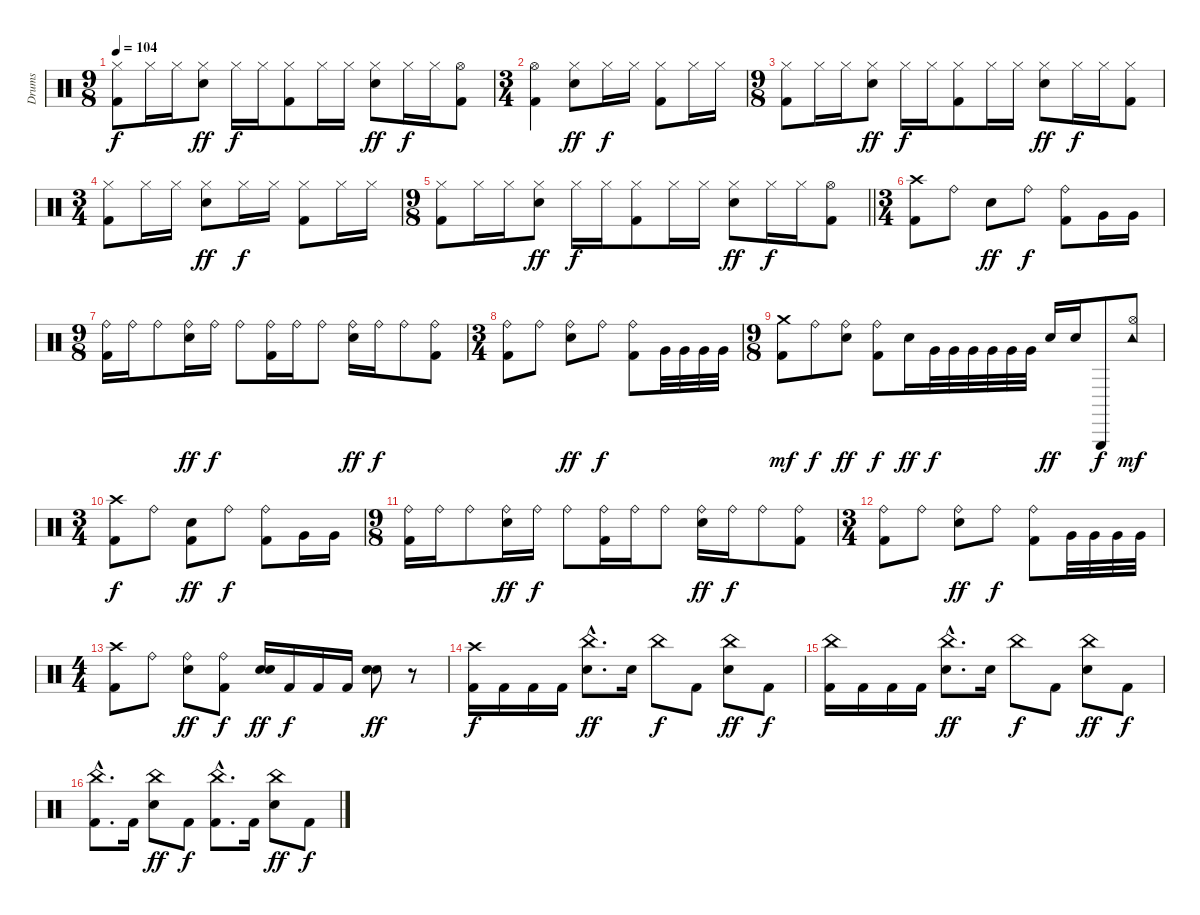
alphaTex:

\track ("Drums" "Drums") {instrument percussion}
\staff {score}
\articulation defaults
\ts (9 8)
\tempo 104
\clef neutral
\ks c
("Kick (hit) 2" "Hi-Hat (closed)").8{dy f} "Hi-Hat (closed)".16 "Hi-Hat (closed)".16 ("Electric Snare (hit)" "Hi-Hat (closed)").8{dy ff} "Hi-Hat (closed)".16{dy f} "Hi-Hat (closed)".16 ("Kick (hit) 2" "Hi-Hat (closed)").8 "Hi-Hat (closed)".16 "Hi-Hat (closed)".16 ("Electric Snare (hit)" "Hi-Hat (closed)").8{dy ff} "Hi-Hat (closed)".16{dy f} "Hi-Hat (closed)".16 ("Kick (hit) 2" "Hi-Hat (open)").8 |
\ts (3 4)
("Kick (hit) 2" "Hi-Hat (open)").4 ("Electric Snare (hit)" "Hi-Hat (closed)").8{dy ff} "Hi-Hat (closed)".16{dy f} "Hi-Hat (closed)".16 ("Kick (hit) 2" "Hi-Hat (closed)").8 "Hi-Hat (closed)".16 "Hi-Hat (closed)".16 |
\ts (9 8)
("Kick (hit) 2" "Hi-Hat (closed)").8 "Hi-Hat (closed)".16 "Hi-Hat (closed)".16 ("Electric Snare (hit)" "Hi-Hat (closed)").8{dy ff} "Hi-Hat (closed)".16{dy f} "Hi-Hat (closed)".16 ("Kick (hit) 2" "Hi-Hat (closed)").8 "Hi-Hat (closed)".16 "Hi-Hat (closed)".16 ("Electric Snare (hit)" "Hi-Hat (closed)").8{dy ff} "Hi-Hat (closed)".16{dy f} "Hi-Hat (closed)".16 ("Kick (hit) 2" "Hi-Hat (closed)").8 |
\ts (3 4)
("Kick (hit) 2" "Hi-Hat (closed)").8 "Hi-Hat (closed)".16 "Hi-Hat (closed)".16 ("Electric Snare (hit)" "Hi-Hat (closed)").8{dy ff} "Hi-Hat (closed)".16{dy f} "Hi-Hat (closed)".16 ("Kick (hit) 2" "Hi-Hat (closed)").8 "Hi-Hat (closed)".16 "Hi-Hat (closed)".16 |
\ts (9 8)
\barLineRight lightlight
("Kick (hit) 2" "Hi-Hat (closed)").8 "Hi-Hat (closed)".16 "Hi-Hat (closed)".16 ("Electric Snare (hit)" "Hi-Hat (closed)").8{dy ff} "Hi-Hat (closed)".16{dy f} "Hi-Hat (closed)".16 ("Kick (hit) 2" "Hi-Hat (closed)").8 "Hi-Hat (closed)".16 "Hi-Hat (closed)".16 ("Electric Snare (hit)" "Hi-Hat (closed)").8{dy ff} "Hi-Hat (closed)".16{dy f} "Hi-Hat (closed)".16 ("Kick (hit) 2" "Hi-Hat (open)").8 |
\ts (3 4)
("Kick (hit) 2" "Crash high (hit)").8 "Ride (bell)".8 "Electric Snare (hit)".8{dy ff} "Ride (bell)".8{dy f} ("Kick (hit) 2" "Ride (bell)").8 "Very Low Tom (hit)".16 "Very Low Tom (hit)".16 |
\ts (9 8)
("Kick (hit) 2" "Ride (bell)").16 "Ride (bell)".16 "Ride (bell)".8 ("Electric Snare (hit)" "Ride (bell)").16{dy ff} "Ride (bell)".16{dy f} "Ride (bell)".8 ("Kick (hit) 2" "Ride (bell)").16 "Ride (bell)".16 "Ride (bell)".8 ("Electric Snare (hit)" "Ride (bell)").16{dy ff} "Ride (bell)".16{dy f} "Ride (bell)".8 ("Kick (hit) 2" "Ride (bell)").8 |
\ts (3 4)
("Kick (hit) 2" "Ride (bell)").8 "Ride (bell)".8 ("Electric Snare (hit)" "Ride (bell)").8{dy ff} "Ride (bell)".8{dy f} ("Kick (hit) 2" "Ride (bell)").8 "Very Low Tom (hit)".32 "Very Low Tom (hit)".32 "Very Low Tom (hit)".32 "Very Low Tom (hit)".32 |
\ts (9 8)
("Kick (hit) 2" "Crash medium (hit)").8{dy mf} "Ride (bell)".8{dy f} ("Electric Snare (hit)" "Ride (bell)").8{dy ff} ("Kick (hit) 2" "Ride (bell)").8{dy f} "Electric Snare (hit)".16{dy ff} "Very Low Tom (hit)".32{dy f} "Very Low Tom (hit)".32 "Very Low Tom (hit)".32 "Very Low Tom (hit)".32 "Very Low Tom (hit)".32 "Very Low Tom (hit)".32 "Electric Snare (hit)".16{dy ff} "Electric Snare (hit)".16 "Triangle (hit)".8{dy f} ("Hi-Hat (open)" "Tambourine (hit)").8{dy mf} |
\ts (3 4)
("Kick (hit) 2" "Crash high (hit)").8{dy f} "Ride (bell)".8 ("Kick (hit) 2" "Electric Snare (hit)").8{dy ff} "Ride (bell)".8{dy f} ("Kick (hit) 2" "Ride (bell)").8 "Very Low Tom (hit)".16 "Very Low Tom (hit)".16 |
\ts (9 8)
("Kick (hit) 2" "Ride (bell)").16 "Ride (bell)".16 "Ride (bell)".8 ("Electric Snare (hit)" "Ride (bell)").16{dy ff} "Ride (bell)".16{dy f} "Ride (bell)".8 ("Kick (hit) 2" "Ride (bell)").16 "Ride (bell)".16 "Ride (bell)".8 ("Electric Snare (hit)" "Ride (bell)").16{dy ff} "Ride (bell)".16{dy f} "Ride (bell)".8 ("Kick (hit) 2" "Ride (bell)").8 |
\ts (3 4)
("Kick (hit) 2" "Ride (bell)").8 "Ride (bell)".8 ("Electric Snare (hit)" "Ride (bell)").8{dy ff} "Ride (bell)".8{dy f} ("Kick (hit) 2" "Ride (bell)").8 "Very Low Tom (hit)".32 "Very Low Tom (hit)".32 "Very Low Tom (hit)".32 "Very Low Tom (hit)".32 |
\ts (4 4)
("Kick (hit) 2" "Crash high (hit)").8 "Ride (bell)".8 ("Electric Snare (hit)" "Ride (bell)").8{dy ff} ("Kick (hit) 2" "Ride (bell)").8{dy f} ("Electric Snare (hit)" "Electric Snare (hit)").16{dy ff} "Kick (hit) 2".16{dy f} "Kick (hit) 2".16 "Kick (hit) 2".16 ("Electric Snare (hit)" "Electric Snare (hit)").8{dy ff} r.8 |
("Kick (hit) 2" "Crash high (hit)").16{dy f} "Kick (hit) 2".16 "Kick (hit) 2".16 "Kick (hit) 2".16 ("Electric Snare (hit)"{hac} "China (hit)"{hac}).8{d dy ff} "Electric Snare (hit)".16 "China (hit)".8{dy f} "Kick (hit) 2".8 ("Electric Snare (hit)" "China (hit)").8{dy ff} "Kick (hit) 2".8{dy f} |
("Kick (hit) 2" "China (hit)").16 "Kick (hit) 2".16 "Kick (hit) 2".16 "Kick (hit) 2".16 ("Electric Snare (hit)"{hac} "China (hit)"{hac}).8{d dy ff} "Electric Snare (hit)".16 "China (hit)".8{dy f} "Kick (hit) 2".8 ("Electric Snare (hit)" "China (hit)").8{dy ff} "Kick (hit) 2".8{dy f} |
("Kick (hit) 2"{hac} "China (hit)"{hac}).8{d} "Kick (hit) 2".16 ("Electric Snare (hit)" "China (hit)").8{dy ff} "Kick (hit) 2".8{dy f} ("Kick (hit) 2"{hac} "China (hit)"{hac}).8{d} "Kick (hit) 2".16 ("Electric Snare (hit)" "China (hit)").8{dy ff} "Kick (hit) 2".8{dy f}
